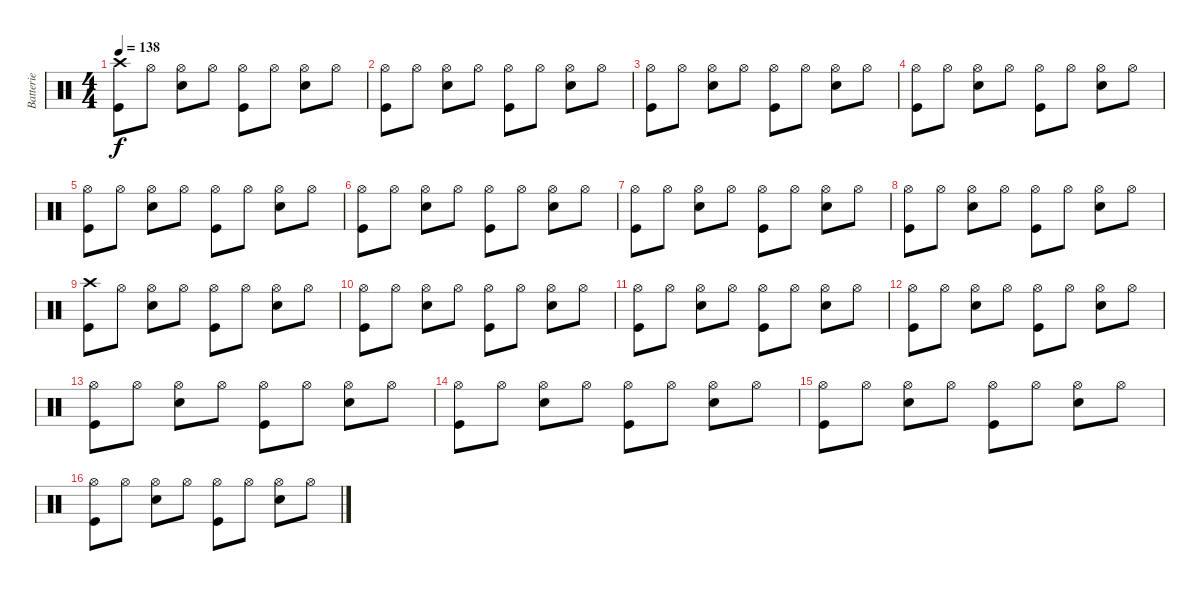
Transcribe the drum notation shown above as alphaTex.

\track ("Batterie" "Batterie") {instrument percussion}
\staff {score}
\articulation defaults
\ts (4 4)
\tempo 138
\clef neutral
\ks c
("Crash high (hit)" "Kick (hit)").8{dy f} "Hi-Hat (open)".8 ("Hi-Hat (open)" "Snare (hit) 2").8 "Hi-Hat (open)".8 ("Hi-Hat (open)" "Kick (hit)").8 "Hi-Hat (open)".8 ("Hi-Hat (open)" "Snare (hit) 2").8 "Hi-Hat (open)".8 |
("Hi-Hat (open)" "Kick (hit)").8 "Hi-Hat (open)".8 ("Hi-Hat (open)" "Snare (hit) 2").8 "Hi-Hat (open)".8 ("Hi-Hat (open)" "Kick (hit)").8 "Hi-Hat (open)".8 ("Hi-Hat (open)" "Snare (hit) 2").8 "Hi-Hat (open)".8 |
("Hi-Hat (open)" "Kick (hit)").8 "Hi-Hat (open)".8 ("Hi-Hat (open)" "Snare (hit) 2").8 "Hi-Hat (open)".8 ("Hi-Hat (open)" "Kick (hit)").8 "Hi-Hat (open)".8 ("Hi-Hat (open)" "Snare (hit) 2").8 "Hi-Hat (open)".8 |
("Hi-Hat (open)" "Kick (hit)").8 "Hi-Hat (open)".8 ("Hi-Hat (open)" "Snare (hit) 2").8 "Hi-Hat (open)".8 ("Hi-Hat (open)" "Kick (hit)").8 "Hi-Hat (open)".8 ("Hi-Hat (open)" "Snare (hit) 2").8 "Hi-Hat (open)".8 |
("Hi-Hat (open)" "Kick (hit)").8 "Hi-Hat (open)".8 ("Hi-Hat (open)" "Snare (hit) 2").8 "Hi-Hat (open)".8 ("Hi-Hat (open)" "Kick (hit)").8 "Hi-Hat (open)".8 ("Hi-Hat (open)" "Snare (hit) 2").8 "Hi-Hat (open)".8 |
("Hi-Hat (open)" "Kick (hit)").8 "Hi-Hat (open)".8 ("Hi-Hat (open)" "Snare (hit) 2").8 "Hi-Hat (open)".8 ("Hi-Hat (open)" "Kick (hit)").8 "Hi-Hat (open)".8 ("Hi-Hat (open)" "Snare (hit) 2").8 "Hi-Hat (open)".8 |
("Hi-Hat (open)" "Kick (hit)").8 "Hi-Hat (open)".8 ("Hi-Hat (open)" "Snare (hit) 2").8 "Hi-Hat (open)".8 ("Hi-Hat (open)" "Kick (hit)").8 "Hi-Hat (open)".8 ("Hi-Hat (open)" "Snare (hit) 2").8 "Hi-Hat (open)".8 |
("Hi-Hat (open)" "Kick (hit)").8 "Hi-Hat (open)".8 ("Hi-Hat (open)" "Snare (hit) 2").8 "Hi-Hat (open)".8 ("Hi-Hat (open)" "Kick (hit)").8 "Hi-Hat (open)".8 ("Hi-Hat (open)" "Snare (hit) 2").8 "Hi-Hat (open)".8 |
("Crash high (hit)" "Kick (hit)").8 "Hi-Hat (open)".8 ("Hi-Hat (open)" "Snare (hit) 2").8 "Hi-Hat (open)".8 ("Hi-Hat (open)" "Kick (hit)").8 "Hi-Hat (open)".8 ("Hi-Hat (open)" "Snare (hit) 2").8 "Hi-Hat (open)".8 |
("Hi-Hat (open)" "Kick (hit)").8 "Hi-Hat (open)".8 ("Hi-Hat (open)" "Snare (hit) 2").8 "Hi-Hat (open)".8 ("Hi-Hat (open)" "Kick (hit)").8 "Hi-Hat (open)".8 ("Hi-Hat (open)" "Snare (hit) 2").8 "Hi-Hat (open)".8 |
("Hi-Hat (open)" "Kick (hit)").8 "Hi-Hat (open)".8 ("Hi-Hat (open)" "Snare (hit) 2").8 "Hi-Hat (open)".8 ("Hi-Hat (open)" "Kick (hit)").8 "Hi-Hat (open)".8 ("Hi-Hat (open)" "Snare (hit) 2").8 "Hi-Hat (open)".8 |
("Hi-Hat (open)" "Kick (hit)").8 "Hi-Hat (open)".8 ("Hi-Hat (open)" "Snare (hit) 2").8 "Hi-Hat (open)".8 ("Hi-Hat (open)" "Kick (hit)").8 "Hi-Hat (open)".8 ("Hi-Hat (open)" "Snare (hit) 2").8 "Hi-Hat (open)".8 |
("Hi-Hat (open)" "Kick (hit)").8 "Hi-Hat (open)".8 ("Hi-Hat (open)" "Snare (hit) 2").8 "Hi-Hat (open)".8 ("Hi-Hat (open)" "Kick (hit)").8 "Hi-Hat (open)".8 ("Hi-Hat (open)" "Snare (hit) 2").8 "Hi-Hat (open)".8 |
("Hi-Hat (open)" "Kick (hit)").8 "Hi-Hat (open)".8 ("Hi-Hat (open)" "Snare (hit) 2").8 "Hi-Hat (open)".8 ("Hi-Hat (open)" "Kick (hit)").8 "Hi-Hat (open)".8 ("Hi-Hat (open)" "Snare (hit) 2").8 "Hi-Hat (open)".8 |
("Hi-Hat (open)" "Kick (hit)").8 "Hi-Hat (open)".8 ("Hi-Hat (open)" "Snare (hit) 2").8 "Hi-Hat (open)".8 ("Hi-Hat (open)" "Kick (hit)").8 "Hi-Hat (open)".8 ("Hi-Hat (open)" "Snare (hit) 2").8 "Hi-Hat (open)".8 |
("Hi-Hat (open)" "Kick (hit)").8 "Hi-Hat (open)".8 ("Hi-Hat (open)" "Snare (hit) 2").8 "Hi-Hat (open)".8 ("Hi-Hat (open)" "Kick (hit)").8 "Hi-Hat (open)".8 ("Hi-Hat (open)" "Snare (hit) 2").8 "Hi-Hat (open)".8
